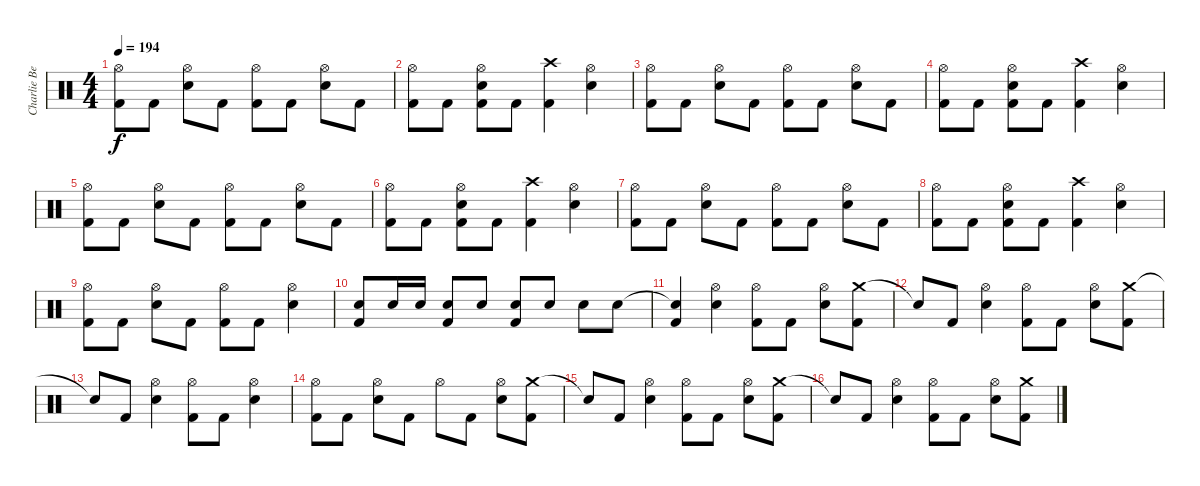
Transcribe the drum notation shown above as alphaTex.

\track ("Charlie Benate " "Charlie Be") {instrument percussion}
\staff {score}
\articulation defaults
\ts (4 4)
\tempo 194
\clef neutral
\ks c
("Hi-Hat (open)" "Kick (hit) 2").8{dy f} "Kick (hit) 2".8 ("Hi-Hat (open)" "Snare (hit) 2").8 "Kick (hit) 2".8 ("Hi-Hat (open)" "Kick (hit) 2").8 "Kick (hit) 2".8 ("Hi-Hat (open)" "Snare (hit) 2").8 "Kick (hit) 2".8 |
("Hi-Hat (open)" "Kick (hit) 2").8 "Kick (hit) 2".8 ("Hi-Hat (open)" "Snare (hit) 2" "Kick (hit) 2").8 "Kick (hit) 2".8 ("Crash high (hit)" "Kick (hit) 2").4 ("Hi-Hat (open)" "Snare (hit) 2").4 |
("Hi-Hat (open)" "Kick (hit) 2").8 "Kick (hit) 2".8 ("Hi-Hat (open)" "Snare (hit) 2").8 "Kick (hit) 2".8 ("Hi-Hat (open)" "Kick (hit) 2").8 "Kick (hit) 2".8 ("Hi-Hat (open)" "Snare (hit) 2").8 "Kick (hit) 2".8 |
("Hi-Hat (open)" "Kick (hit) 2").8 "Kick (hit) 2".8 ("Hi-Hat (open)" "Snare (hit) 2" "Kick (hit) 2").8 "Kick (hit) 2".8 ("Crash high (hit)" "Kick (hit) 2").4 ("Hi-Hat (open)" "Snare (hit) 2").4 |
("Hi-Hat (open)" "Kick (hit) 2").8 "Kick (hit) 2".8 ("Hi-Hat (open)" "Snare (hit) 2").8 "Kick (hit) 2".8 ("Hi-Hat (open)" "Kick (hit) 2").8 "Kick (hit) 2".8 ("Hi-Hat (open)" "Snare (hit) 2").8 "Kick (hit) 2".8 |
("Hi-Hat (open)" "Kick (hit) 2").8 "Kick (hit) 2".8 ("Hi-Hat (open)" "Snare (hit) 2" "Kick (hit) 2").8 "Kick (hit) 2".8 ("Crash high (hit)" "Kick (hit) 2").4 ("Hi-Hat (open)" "Snare (hit) 2").4 |
("Hi-Hat (open)" "Kick (hit) 2").8 "Kick (hit) 2".8 ("Hi-Hat (open)" "Snare (hit) 2").8 "Kick (hit) 2".8 ("Hi-Hat (open)" "Kick (hit) 2").8 "Kick (hit) 2".8 ("Hi-Hat (open)" "Snare (hit) 2").8 "Kick (hit) 2".8 |
("Hi-Hat (open)" "Kick (hit) 2").8 "Kick (hit) 2".8 ("Hi-Hat (open)" "Snare (hit) 2" "Kick (hit) 2").8 "Kick (hit) 2".8 ("Crash high (hit)" "Kick (hit) 2").4 ("Hi-Hat (open)" "Snare (hit) 2").4 |
("Hi-Hat (open)" "Kick (hit) 2").8 "Kick (hit) 2".8 ("Hi-Hat (open)" "Snare (hit) 2").8 "Kick (hit) 2".8 ("Hi-Hat (open)" "Kick (hit) 2").8 "Kick (hit) 2".8 ("Hi-Hat (open)" "Snare (hit) 2").4 |
("Snare (hit) 2" "Kick (hit) 2").8 "Snare (hit) 2".16 "Snare (hit) 2".16 ("Snare (hit) 2" "Kick (hit) 2").8 "Snare (hit) 2".8 ("Snare (hit) 2" "Kick (hit) 2").8 "Snare (hit) 2".8 "Snare (hit) 2".8 "Snare (hit) 2".8 |
("Snare (hit)"{t} "Kick (hit) 2").4 ("Hi-Hat (open)" "Snare (hit) 2").4 ("Hi-Hat (open)" "Kick (hit) 2").8 "Kick (hit) 2".8 ("Hi-Hat (open)" "Snare (hit) 2").8 ("Crash medium (hit)" "Kick (hit) 2").8 |
"Snare (hit)"{t}.8 "Kick (hit) 2".8 ("Hi-Hat (open)" "Snare (hit) 2").4 ("Hi-Hat (open)" "Kick (hit) 2").8 "Kick (hit) 2".8 ("Hi-Hat (open)" "Snare (hit) 2").8 ("Crash medium (hit)" "Kick (hit) 2").8 |
"Snare (hit)"{t}.8 "Kick (hit) 2".8 ("Hi-Hat (open)" "Snare (hit) 2").4 ("Hi-Hat (open)" "Kick (hit) 2").8 "Kick (hit) 2".8 ("Hi-Hat (open)" "Snare (hit) 2").4 |
("Hi-Hat (open)" "Kick (hit) 2").8 "Kick (hit) 2".8 ("Hi-Hat (open)" "Snare (hit) 2").8 "Kick (hit) 2".8 "Hi-Hat (open)".8 "Kick (hit) 2".8 ("Hi-Hat (open)" "Snare (hit) 2").8 ("Crash medium (hit)" "Kick (hit) 2").8 |
"Snare (hit)"{t}.8 "Kick (hit) 2".8 ("Hi-Hat (open)" "Snare (hit) 2").4 ("Hi-Hat (open)" "Kick (hit) 2").8 "Kick (hit) 2".8 ("Hi-Hat (open)" "Snare (hit) 2").8 ("Crash medium (hit)" "Kick (hit) 2").8 |
"Snare (hit)"{t}.8 "Kick (hit) 2".8 ("Hi-Hat (open)" "Snare (hit) 2").4 ("Hi-Hat (open)" "Kick (hit) 2").8 "Kick (hit) 2".8 ("Hi-Hat (open)" "Snare (hit) 2").8 ("Crash medium (hit)" "Kick (hit) 2").8
